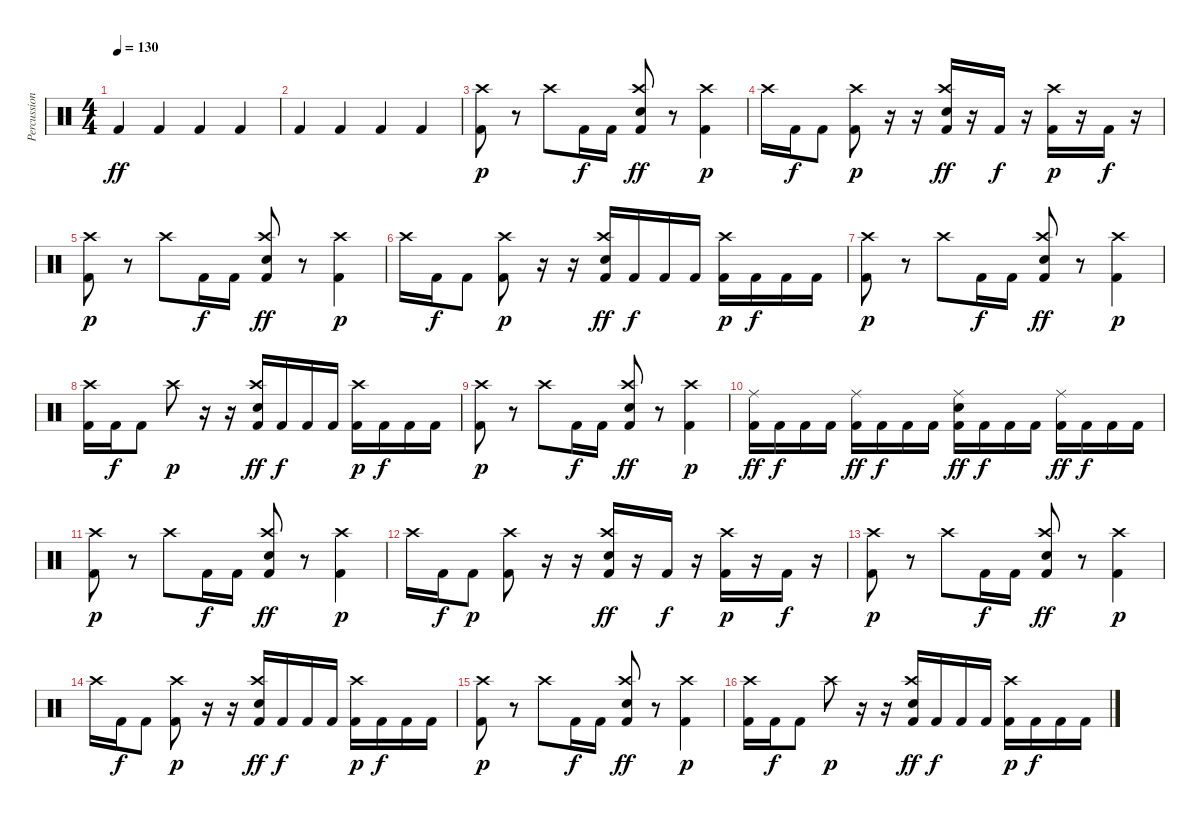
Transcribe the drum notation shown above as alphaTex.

\track ("Percussion" "Percussion") {instrument percussion}
\staff {score}
\articulation defaults
\ts (4 4)
\tempo 130
\clef neutral
\ks c "Kick (hit) 2".4{dy ff} "Kick (hit) 2".4 "Kick (hit) 2".4 "Kick (hit) 2".4
|
"Kick (hit) 2".4 "Kick (hit) 2".4 "Kick (hit) 2".4 "Kick (hit) 2".4 |
("Crash high (hit)" "Kick (hit) 2").8{dy p} r.8 "Crash high (hit)".8 "Kick (hit) 2".16{dy f} "Kick (hit) 2".16 ("Crash high (hit)" "Electric Snare (hit)" "Kick (hit) 2").8{dy ff} r.8 ("Crash high (hit)" "Kick (hit) 2").4{dy p} |
"Crash high (hit)".16 "Kick (hit) 2".16{dy f} "Kick (hit) 2".8 ("Crash high (hit)" "Kick (hit) 2").8{dy p} r.16 r.16 ("Crash high (hit)" "Electric Snare (hit)" "Kick (hit) 2").16{dy ff} r.16 "Kick (hit) 2".16{dy f} r.16 ("Crash high (hit)" "Kick (hit) 2").16{dy p} r.16 "Kick (hit) 2".16{dy f} r.16 |
("Crash high (hit)" "Kick (hit) 2").8{dy p} r.8 "Crash high (hit)".8 "Kick (hit) 2".16{dy f} "Kick (hit) 2".16 ("Crash high (hit)" "Electric Snare (hit)" "Kick (hit) 2").8{dy ff} r.8 ("Crash high (hit)" "Kick (hit) 2").4{dy p} |
"Crash high (hit)".16 "Kick (hit) 2".16{dy f} "Kick (hit) 2".8 ("Crash high (hit)" "Kick (hit) 2").8{dy p} r.16 r.16 ("Crash high (hit)" "Electric Snare (hit)" "Kick (hit) 2").16{dy ff} "Kick (hit) 2".16{dy f} "Kick (hit) 2".16 "Kick (hit) 2".16 ("Crash high (hit)" "Kick (hit) 2").16{dy p} "Kick (hit) 2".16{dy f} "Kick (hit) 2".16 "Kick (hit) 2".16 |
("Crash high (hit)" "Kick (hit) 2").8{dy p} r.8 "Crash high (hit)".8 "Kick (hit) 2".16{dy f} "Kick (hit) 2".16 ("Crash high (hit)" "Electric Snare (hit)" "Kick (hit) 2").8{dy ff} r.8 ("Crash high (hit)" "Kick (hit) 2").4{dy p} |
("Crash high (hit)" "Kick (hit) 2").16 "Kick (hit) 2".16{dy f} "Kick (hit) 2".8 "Crash high (hit)".8{dy p} r.16 r.16 ("Crash high (hit)" "Electric Snare (hit)" "Kick (hit) 2").16{dy ff} "Kick (hit) 2".16{dy f} "Kick (hit) 2".16 "Kick (hit) 2".16 ("Crash high (hit)" "Kick (hit) 2").16{dy p} "Kick (hit) 2".16{dy f} "Kick (hit) 2".16 "Kick (hit) 2".16 |
("Crash high (hit)" "Kick (hit) 2").8{dy p} r.8 "Crash high (hit)".8 "Kick (hit) 2".16{dy f} "Kick (hit) 2".16 ("Crash high (hit)" "Electric Snare (hit)" "Kick (hit) 2").8{dy ff} r.8 ("Crash high (hit)" "Kick (hit) 2").4{dy p} |
("Ride (middle)" "Kick (hit) 2").16{dy ff} "Kick (hit) 2".16{dy f} "Kick (hit) 2".16 "Kick (hit) 2".16 ("Ride (middle)" "Kick (hit) 2").16{dy ff} "Kick (hit) 2".16{dy f} "Kick (hit) 2".16 "Kick (hit) 2".16 ("Electric Snare (hit)" "Ride (middle)" "Kick (hit) 2").16{dy ff} "Kick (hit) 2".16{dy f} "Kick (hit) 2".16 "Kick (hit) 2".16 ("Ride (middle)" "Kick (hit) 2").16{dy ff} "Kick (hit) 2".16{dy f} "Kick (hit) 2".16 "Kick (hit) 2".16 |
("Crash high (hit)" "Kick (hit) 2").8{dy p} r.8 "Crash high (hit)".8 "Kick (hit) 2".16{dy f} "Kick (hit) 2".16 ("Crash high (hit)" "Electric Snare (hit)" "Kick (hit) 2").8{dy ff} r.8 ("Crash high (hit)" "Kick (hit) 2").4{dy p} |
"Crash high (hit)".16 "Kick (hit) 2".16{dy f} "Kick (hit) 2".8{dy p} ("Crash high (hit)" "Kick (hit) 2").8 r.16 r.16 ("Crash high (hit)" "Electric Snare (hit)" "Kick (hit) 2").16{dy ff} r.16 "Kick (hit) 2".16{dy f} r.16 ("Crash high (hit)" "Kick (hit) 2").16{dy p} r.16 "Kick (hit) 2".16{dy f} r.16 |
("Crash high (hit)" "Kick (hit) 2").8{dy p} r.8 "Crash high (hit)".8 "Kick (hit) 2".16{dy f} "Kick (hit) 2".16 ("Crash high (hit)" "Electric Snare (hit)" "Kick (hit) 2").8{dy ff} r.8 ("Crash high (hit)" "Kick (hit) 2").4{dy p} |
"Crash high (hit)".16 "Kick (hit) 2".16{dy f} "Kick (hit) 2".8 ("Crash high (hit)" "Kick (hit) 2").8{dy p} r.16 r.16 ("Crash high (hit)" "Electric Snare (hit)" "Kick (hit) 2").16{dy ff} "Kick (hit) 2".16{dy f} "Kick (hit) 2".16 "Kick (hit) 2".16 ("Crash high (hit)" "Kick (hit) 2").16{dy p} "Kick (hit) 2".16{dy f} "Kick (hit) 2".16 "Kick (hit) 2".16 |
("Crash high (hit)" "Kick (hit) 2").8{dy p} r.8 "Crash high (hit)".8 "Kick (hit) 2".16{dy f} "Kick (hit) 2".16 ("Crash high (hit)" "Electric Snare (hit)" "Kick (hit) 2").8{dy ff} r.8 ("Crash high (hit)" "Kick (hit) 2").4{dy p} |
("Crash high (hit)" "Kick (hit) 2").16 "Kick (hit) 2".16{dy f} "Kick (hit) 2".8 "Crash high (hit)".8{dy p} r.16 r.16 ("Crash high (hit)" "Electric Snare (hit)" "Kick (hit) 2").16{dy ff} "Kick (hit) 2".16{dy f} "Kick (hit) 2".16 "Kick (hit) 2".16 ("Crash high (hit)" "Kick (hit) 2").16{dy p} "Kick (hit) 2".16{dy f} "Kick (hit) 2".16 "Kick (hit) 2".16
